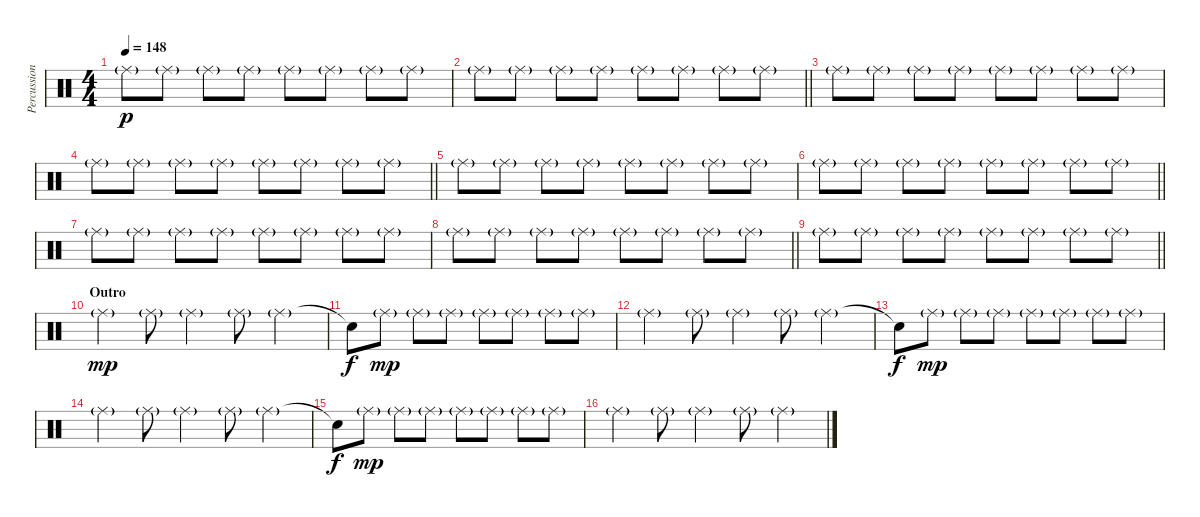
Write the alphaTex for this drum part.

\track ("Percussions" "Percussion") {instrument percussion}
\staff {score}
\articulation defaults
\ts (4 4)
\tempo 148
\clef neutral
\ks c "Ride (middle)"{g}.8{dy p} "Ride (middle)"{g}.8 "Ride (middle)"{g}.8 "Ride (middle)"{g}.8 "Ride (middle)"{g}.8 "Ride (middle)"{g}.8 "Ride (middle)"{g}.8 "Ride (middle)"{g}.8
|
\barLineRight lightlight "Ride (middle)"{g}.8 "Ride (middle)"{g}.8 "Ride (middle)"{g}.8 "Ride (middle)"{g}.8 "Ride (middle)"{g}.8 "Ride (middle)"{g}.8 "Ride (middle)"{g}.8 "Ride (middle)"{g}.8
|
"Ride (middle)"{g}.8 "Ride (middle)"{g}.8 "Ride (middle)"{g}.8 "Ride (middle)"{g}.8 "Ride (middle)"{g}.8 "Ride (middle)"{g}.8 "Ride (middle)"{g}.8 "Ride (middle)"{g}.8 |
\barLineRight lightlight "Ride (middle)"{g}.8 "Ride (middle)"{g}.8 "Ride (middle)"{g}.8 "Ride (middle)"{g}.8 "Ride (middle)"{g}.8 "Ride (middle)"{g}.8 "Ride (middle)"{g}.8 "Ride (middle)"{g}.8
|
"Ride (middle)"{g}.8 "Ride (middle)"{g}.8 "Ride (middle)"{g}.8 "Ride (middle)"{g}.8 "Ride (middle)"{g}.8 "Ride (middle)"{g}.8 "Ride (middle)"{g}.8 "Ride (middle)"{g}.8 |
\barLineRight lightlight "Ride (middle)"{g}.8 "Ride (middle)"{g}.8 "Ride (middle)"{g}.8 "Ride (middle)"{g}.8 "Ride (middle)"{g}.8 "Ride (middle)"{g}.8 "Ride (middle)"{g}.8 "Ride (middle)"{g}.8
|
"Ride (middle)"{g}.8 "Ride (middle)"{g}.8 "Ride (middle)"{g}.8 "Ride (middle)"{g}.8 "Ride (middle)"{g}.8 "Ride (middle)"{g}.8 "Ride (middle)"{g}.8 "Ride (middle)"{g}.8 |
\barLineRight lightlight "Ride (middle)"{g}.8 "Ride (middle)"{g}.8 "Ride (middle)"{g}.8 "Ride (middle)"{g}.8 "Ride (middle)"{g}.8 "Ride (middle)"{g}.8 "Ride (middle)"{g}.8 "Ride (middle)"{g}.8
|
\barLineRight lightlight "Ride (middle)"{g}.8 "Ride (middle)"{g}.8 "Ride (middle)"{g}.8 "Ride (middle)"{g}.8 "Ride (middle)"{g}.8 "Ride (middle)"{g}.8 "Ride (middle)"{g}.8 "Ride (middle)"{g}.8
|
\section ("" "Outro")
"Ride (middle)"{g}.4{dy mp} "Ride (middle)"{g}.8 "Ride (middle)"{g}.4 "Ride (middle)"{g}.8 "Ride (middle)"{g}.4 |
"Snare (hit)"{t}.8{dy f} "Ride (middle)"{g}.8{dy mp} "Ride (middle)"{g}.8 "Ride (middle)"{g}.8 "Ride (middle)"{g}.8 "Ride (middle)"{g}.8 "Ride (middle)"{g}.8 "Ride (middle)"{g}.8 |
"Ride (middle)"{g}.4 "Ride (middle)"{g}.8 "Ride (middle)"{g}.4 "Ride (middle)"{g}.8 "Ride (middle)"{g}.4 |
"Snare (hit)"{t}.8{dy f} "Ride (middle)"{g}.8{dy mp} "Ride (middle)"{g}.8 "Ride (middle)"{g}.8 "Ride (middle)"{g}.8 "Ride (middle)"{g}.8 "Ride (middle)"{g}.8 "Ride (middle)"{g}.8 |
"Ride (middle)"{g}.4 "Ride (middle)"{g}.8 "Ride (middle)"{g}.4 "Ride (middle)"{g}.8 "Ride (middle)"{g}.4 |
"Snare (hit)"{t}.8{dy f} "Ride (middle)"{g}.8{dy mp} "Ride (middle)"{g}.8 "Ride (middle)"{g}.8 "Ride (middle)"{g}.8 "Ride (middle)"{g}.8 "Ride (middle)"{g}.8 "Ride (middle)"{g}.8 |
"Ride (middle)"{g}.4 "Ride (middle)"{g}.8 "Ride (middle)"{g}.4 "Ride (middle)"{g}.8 "Ride (middle)"{g}.4
